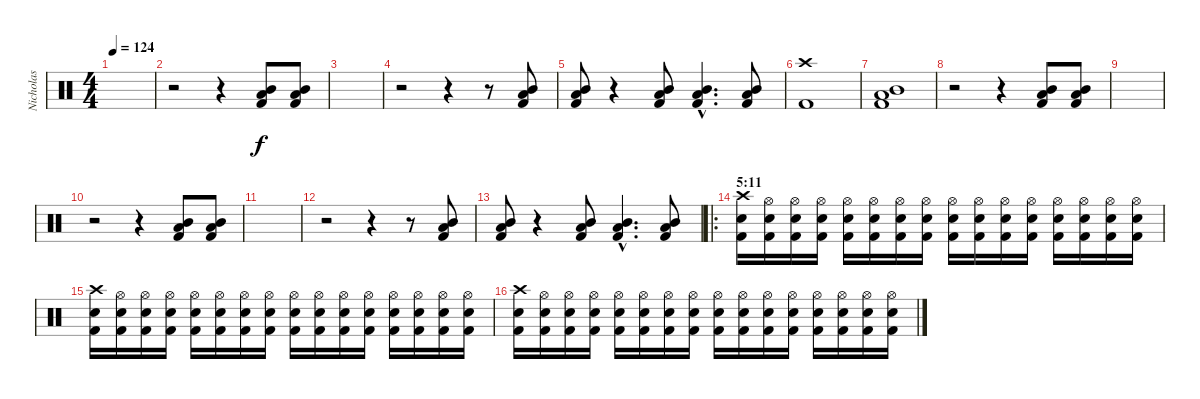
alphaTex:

\track ("Nicholas" "Nicholas") {instrument percussion}
\staff {score}
\articulation defaults
\ts (4 4)
\tempo 124
\clef neutral
\ks c
|
r.2 r.4 ("Kick (hit) 2" "Mid Tom (hit)" "Low Tom (hit)").8 ("Kick (hit) 2" "Mid Tom (hit)" "Low Tom (hit)").8 |
|
r.2 r.4 r.8 ("Kick (hit) 2" "Mid Tom (hit)" "Low Tom (hit)").8 |
("Kick (hit) 2" "Mid Tom (hit)" "Low Tom (hit)").8 r.4 ("Kick (hit) 2" "Mid Tom (hit)" "Low Tom (hit)").8 ("Kick (hit) 2"{hac} "Mid Tom (hit)"{hac} "Low Tom (hit)"{hac}).4{d} ("Kick (hit) 2" "Mid Tom (hit)" "Low Tom (hit)").8 |
("Kick (hit) 2" "Crash high (hit)").1 |
("Kick (hit) 2" "Low Tom (hit)" "Mid Tom (hit)").1 |
r.2 r.4 ("Kick (hit) 2" "Mid Tom (hit)" "Low Tom (hit)").8 ("Kick (hit) 2" "Mid Tom (hit)" "Low Tom (hit)").8 |
|
r.2 r.4 ("Kick (hit) 2" "Mid Tom (hit)" "Low Tom (hit)").8 ("Kick (hit) 2" "Mid Tom (hit)" "Low Tom (hit)").8 |
|
r.2 r.4 r.8 ("Kick (hit) 2" "Mid Tom (hit)" "Low Tom (hit)").8 |
("Kick (hit) 2" "Mid Tom (hit)" "Low Tom (hit)").8 r.4 ("Kick (hit) 2" "Mid Tom (hit)" "Low Tom (hit)").8 ("Kick (hit) 2"{hac} "Mid Tom (hit)"{hac} "Low Tom (hit)"{hac}).4{d} ("Kick (hit) 2" "Mid Tom (hit)" "Low Tom (hit)").8 |
\ro
\section ("" "5:11")
("Kick (hit) 2" "Snare (hit) 2" "Crash high (hit)").16 ("Kick (hit) 2" "Snare (hit) 2" "Hi-Hat (open)").16 ("Kick (hit) 2" "Snare (hit) 2" "Hi-Hat (open)").16 ("Kick (hit) 2" "Snare (hit) 2" "Hi-Hat (open)").16 ("Kick (hit) 2" "Snare (hit) 2" "Hi-Hat (open)").16 ("Kick (hit) 2" "Snare (hit) 2" "Hi-Hat (open)").16 ("Kick (hit) 2" "Snare (hit) 2" "Hi-Hat (open)").16 ("Kick (hit) 2" "Snare (hit) 2" "Hi-Hat (open)").16 ("Kick (hit) 2" "Snare (hit) 2" "Hi-Hat (open)").16 ("Kick (hit) 2" "Snare (hit) 2" "Hi-Hat (open)").16 ("Kick (hit) 2" "Snare (hit) 2" "Hi-Hat (open)").16 ("Kick (hit) 2" "Snare (hit) 2" "Hi-Hat (open)").16 ("Kick (hit) 2" "Snare (hit) 2" "Hi-Hat (open)").16 ("Kick (hit) 2" "Snare (hit) 2" "Hi-Hat (open)").16 ("Kick (hit) 2" "Snare (hit) 2" "Hi-Hat (open)").16 ("Kick (hit) 2" "Snare (hit) 2" "Hi-Hat (open)").16 |
("Kick (hit) 2" "Snare (hit) 2" "Crash high (hit)").16 ("Kick (hit) 2" "Snare (hit) 2" "Hi-Hat (open)").16 ("Kick (hit) 2" "Snare (hit) 2" "Hi-Hat (open)").16 ("Kick (hit) 2" "Snare (hit) 2" "Hi-Hat (open)").16 ("Kick (hit) 2" "Snare (hit) 2" "Hi-Hat (open)").16 ("Kick (hit) 2" "Snare (hit) 2" "Hi-Hat (open)").16 ("Kick (hit) 2" "Snare (hit) 2" "Hi-Hat (open)").16 ("Kick (hit) 2" "Snare (hit) 2" "Hi-Hat (open)").16 ("Kick (hit) 2" "Snare (hit) 2" "Hi-Hat (open)").16 ("Kick (hit) 2" "Snare (hit) 2" "Hi-Hat (open)").16 ("Kick (hit) 2" "Snare (hit) 2" "Hi-Hat (open)").16 ("Kick (hit) 2" "Snare (hit) 2" "Hi-Hat (open)").16 ("Kick (hit) 2" "Snare (hit) 2" "Hi-Hat (open)").16 ("Kick (hit) 2" "Snare (hit) 2" "Hi-Hat (open)").16 ("Kick (hit) 2" "Snare (hit) 2" "Hi-Hat (open)").16 ("Kick (hit) 2" "Snare (hit) 2" "Hi-Hat (open)").16 |
("Kick (hit) 2" "Snare (hit) 2" "Crash high (hit)").16 ("Kick (hit) 2" "Snare (hit) 2" "Hi-Hat (open)").16 ("Kick (hit) 2" "Snare (hit) 2" "Hi-Hat (open)").16 ("Kick (hit) 2" "Snare (hit) 2" "Hi-Hat (open)").16 ("Kick (hit) 2" "Snare (hit) 2" "Hi-Hat (open)").16 ("Kick (hit) 2" "Snare (hit) 2" "Hi-Hat (open)").16 ("Kick (hit) 2" "Snare (hit) 2" "Hi-Hat (open)").16 ("Kick (hit) 2" "Snare (hit) 2" "Hi-Hat (open)").16 ("Kick (hit) 2" "Snare (hit) 2" "Hi-Hat (open)").16 ("Kick (hit) 2" "Snare (hit) 2" "Hi-Hat (open)").16 ("Kick (hit) 2" "Snare (hit) 2" "Hi-Hat (open)").16 ("Kick (hit) 2" "Snare (hit) 2" "Hi-Hat (open)").16 ("Kick (hit) 2" "Snare (hit) 2" "Hi-Hat (open)").16 ("Kick (hit) 2" "Snare (hit) 2" "Hi-Hat (open)").16 ("Kick (hit) 2" "Snare (hit) 2" "Hi-Hat (open)").16 ("Kick (hit) 2" "Snare (hit) 2" "Hi-Hat (open)").16
